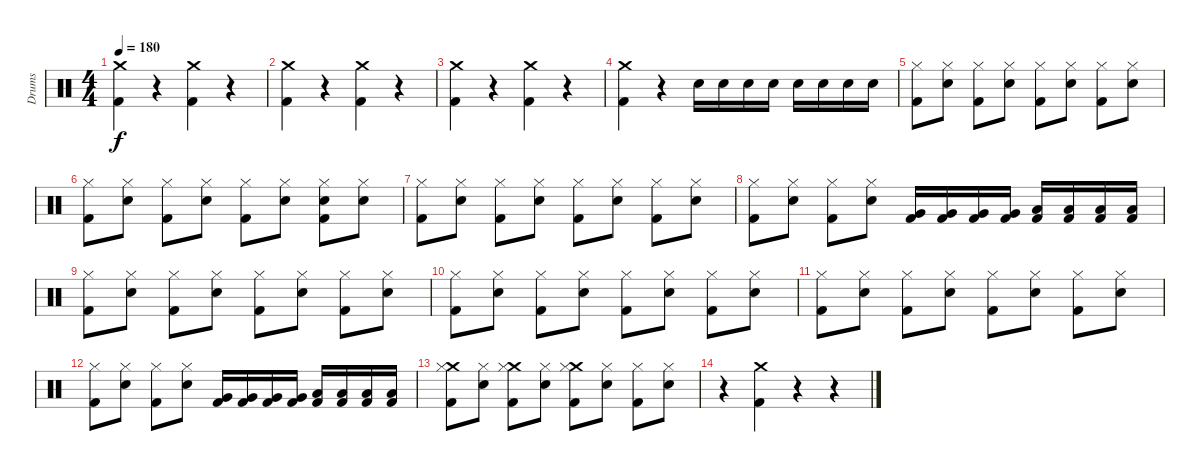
\track ("Drums" "Drums") {instrument percussion}
\staff {score}
\articulation defaults
\ts (4 4)
\tempo 180
\clef neutral
\ks c
("Crash medium (hit)" "Kick (hit) 2").4{dy f} r.4 ("Crash medium (hit)" "Kick (hit) 2").4 r.4 |
("Crash medium (hit)" "Kick (hit) 2").4 r.4 ("Crash medium (hit)" "Kick (hit) 2").4 r.4 |
("Crash medium (hit)" "Kick (hit) 2").4 r.4 ("Crash medium (hit)" "Kick (hit) 2").4 r.4 |
("Crash medium (hit)" "Kick (hit) 2").4 r.4 "Electric Snare (hit)".16 "Electric Snare (hit)".16 "Electric Snare (hit)".16 "Electric Snare (hit)".16 "Electric Snare (hit)".16 "Electric Snare (hit)".16 "Electric Snare (hit)".16 "Electric Snare (hit)".16 |
("Hi-Hat (closed)" "Kick (hit) 2").8 ("Hi-Hat (closed)" "Electric Snare (hit)").8 ("Hi-Hat (closed)" "Kick (hit) 2").8 ("Hi-Hat (closed)" "Electric Snare (hit)").8 ("Hi-Hat (closed)" "Kick (hit) 2").8 ("Hi-Hat (closed)" "Electric Snare (hit)").8 ("Hi-Hat (closed)" "Kick (hit) 2").8 ("Hi-Hat (closed)" "Electric Snare (hit)").8 |
("Hi-Hat (closed)" "Kick (hit) 2").8 ("Hi-Hat (closed)" "Electric Snare (hit)").8 ("Hi-Hat (closed)" "Kick (hit) 2").8 ("Hi-Hat (closed)" "Electric Snare (hit)").8 ("Hi-Hat (closed)" "Kick (hit) 2").8 ("Hi-Hat (closed)" "Electric Snare (hit)").8 ("Hi-Hat (closed)" "Electric Snare (hit)" "Kick (hit) 2").8 ("Hi-Hat (closed)" "Electric Snare (hit)").8 |
("Hi-Hat (closed)" "Kick (hit) 2").8 ("Hi-Hat (closed)" "Electric Snare (hit)").8 ("Hi-Hat (closed)" "Kick (hit) 2").8 ("Hi-Hat (closed)" "Electric Snare (hit)").8 ("Hi-Hat (closed)" "Kick (hit) 2").8 ("Hi-Hat (closed)" "Electric Snare (hit)").8 ("Hi-Hat (closed)" "Kick (hit) 2").8 ("Hi-Hat (closed)" "Electric Snare (hit)").8 |
("Hi-Hat (closed)" "Kick (hit) 2").8 ("Hi-Hat (closed)" "Electric Snare (hit)").8 ("Hi-Hat (closed)" "Kick (hit) 2").8 ("Hi-Hat (closed)" "Electric Snare (hit)").8 ("Very Low Tom (hit)" "Kick (hit) 2").16 ("Very Low Tom (hit)" "Kick (hit) 2").16 ("Very Low Tom (hit)" "Kick (hit) 2").16 ("Very Low Tom (hit)" "Kick (hit) 2").16 ("Low Floor Tom (hit)" "Kick (hit) 2").16 ("Low Floor Tom (hit)" "Kick (hit) 2").16 ("Low Floor Tom (hit)" "Kick (hit) 2").16 ("Low Floor Tom (hit)" "Kick (hit) 2").16 |
("Hi-Hat (closed)" "Kick (hit) 2").8 ("Hi-Hat (closed)" "Electric Snare (hit)").8 ("Hi-Hat (closed)" "Kick (hit) 2").8 ("Hi-Hat (closed)" "Electric Snare (hit)").8 ("Hi-Hat (closed)" "Kick (hit) 2").8 ("Hi-Hat (closed)" "Electric Snare (hit)").8 ("Hi-Hat (closed)" "Kick (hit) 2").8 ("Hi-Hat (closed)" "Electric Snare (hit)").8 |
("Hi-Hat (closed)" "Kick (hit) 2").8 ("Hi-Hat (closed)" "Electric Snare (hit)").8 ("Hi-Hat (closed)" "Kick (hit) 2").8 ("Hi-Hat (closed)" "Electric Snare (hit)").8 ("Hi-Hat (closed)" "Kick (hit) 2").8 ("Hi-Hat (closed)" "Electric Snare (hit)").8 ("Hi-Hat (closed)" "Kick (hit) 2").8 ("Hi-Hat (closed)" "Electric Snare (hit)").8 |
("Hi-Hat (closed)" "Kick (hit) 2").8 ("Hi-Hat (closed)" "Electric Snare (hit)").8 ("Hi-Hat (closed)" "Kick (hit) 2").8 ("Hi-Hat (closed)" "Electric Snare (hit)").8 ("Hi-Hat (closed)" "Kick (hit) 2").8 ("Hi-Hat (closed)" "Electric Snare (hit)").8 ("Hi-Hat (closed)" "Kick (hit) 2").8 ("Hi-Hat (closed)" "Electric Snare (hit)").8 |
("Hi-Hat (closed)" "Kick (hit) 2").8 ("Hi-Hat (closed)" "Electric Snare (hit)").8 ("Hi-Hat (closed)" "Kick (hit) 2").8 ("Hi-Hat (closed)" "Electric Snare (hit)").8 ("Very Low Tom (hit)" "Kick (hit) 2").16 ("Very Low Tom (hit)" "Kick (hit) 2").16 ("Very Low Tom (hit)" "Kick (hit) 2").16 ("Very Low Tom (hit)" "Kick (hit) 2").16 ("Low Floor Tom (hit)" "Kick (hit) 2").16 ("Low Floor Tom (hit)" "Kick (hit) 2").16 ("Low Floor Tom (hit)" "Kick (hit) 2").16 ("Low Floor Tom (hit)" "Kick (hit) 2").16 |
("Crash medium (hit)" "Hi-Hat (closed)" "Kick (hit) 2").8 ("Hi-Hat (closed)" "Electric Snare (hit)").8 ("Crash medium (hit)" "Hi-Hat (closed)" "Kick (hit) 2").8 ("Hi-Hat (closed)" "Electric Snare (hit)").8 ("Crash medium (hit)" "Hi-Hat (closed)" "Kick (hit) 2").8 ("Hi-Hat (closed)" "Electric Snare (hit)").8 ("Hi-Hat (closed)" "Kick (hit) 2").8 ("Hi-Hat (closed)" "Electric Snare (hit)").8 |
r.4 ("Crash medium (hit)" "Kick (hit) 2").4 r.4 r.4
